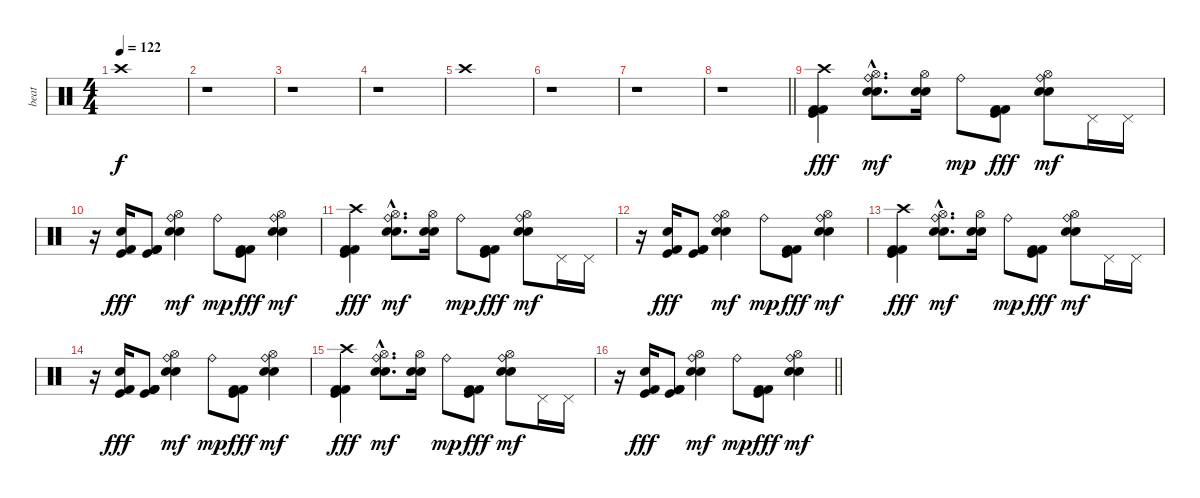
\track ("beat" "beat") {instrument percussion}
\staff {score}
\articulation defaults
\ts (4 4)
\tempo 122
\clef neutral
\ks c "Crash high (hit)".1{dy f}
|
r.1 |
r.1 |
r.1 |
"Crash high (hit)".1 |
r.1 |
r.1 |
\barLineRight lightlight
r.1 |
("Kick (hit)" "Kick (hit) 2" "Kick (hit) 2" "Crash high (hit)").4{dy fff} ("Ride (bell)"{hac} "Snare (hit) 2"{hac} "Electric Snare (hit)"{hac} "Hi-Hat (open)"{hac}).8{d dy mf} ("Snare (hit) 2" "Electric Snare (hit)" "Hi-Hat (open)").16 "Ride (bell)".8{dy mp} ("Kick (hit)" "Kick (hit) 2" "Kick (hit) 2").8{dy fff} ("Ride (bell)" "Snare (hit) 2" "Electric Snare (hit)" "Hi-Hat (open)").8{dy mf} "Pedal Hi-Hat (hit)".16 "Pedal Hi-Hat (hit)".16 |
r.16 ("Kick (hit)" "Kick (hit) 2" "Snare (hit) 2").16{dy fff} ("Kick (hit)" "Kick (hit) 2" "Kick (hit) 2").8 ("Ride (bell)" "Snare (hit) 2" "Electric Snare (hit)" "Hi-Hat (open)").4{dy mf} "Ride (bell)".8{dy mp} ("Kick (hit)" "Kick (hit) 2" "Kick (hit) 2").8{dy fff} ("Ride (bell)" "Snare (hit) 2" "Electric Snare (hit)" "Hi-Hat (open)").4{dy mf} |
("Kick (hit)" "Kick (hit) 2" "Kick (hit) 2" "Crash high (hit)").4{dy fff} ("Ride (bell)"{hac} "Snare (hit) 2"{hac} "Electric Snare (hit)"{hac} "Hi-Hat (open)"{hac}).8{d dy mf} ("Snare (hit) 2" "Electric Snare (hit)" "Hi-Hat (open)").16 "Ride (bell)".8{dy mp} ("Kick (hit)" "Kick (hit) 2" "Kick (hit) 2").8{dy fff} ("Ride (bell)" "Snare (hit) 2" "Electric Snare (hit)" "Hi-Hat (open)").8{dy mf} "Pedal Hi-Hat (hit)".16 "Pedal Hi-Hat (hit)".16 |
r.16 ("Kick (hit)" "Kick (hit) 2" "Snare (hit) 2").16{dy fff} ("Kick (hit)" "Kick (hit) 2" "Kick (hit) 2").8 ("Ride (bell)" "Snare (hit) 2" "Electric Snare (hit)" "Hi-Hat (open)").4{dy mf} "Ride (bell)".8{dy mp} ("Kick (hit)" "Kick (hit) 2" "Kick (hit) 2").8{dy fff} ("Ride (bell)" "Snare (hit) 2" "Electric Snare (hit)" "Hi-Hat (open)").4{dy mf} |
("Kick (hit)" "Kick (hit) 2" "Kick (hit) 2" "Crash high (hit)").4{dy fff} ("Ride (bell)"{hac} "Snare (hit) 2"{hac} "Electric Snare (hit)"{hac} "Hi-Hat (open)"{hac}).8{d dy mf} ("Snare (hit) 2" "Electric Snare (hit)" "Hi-Hat (open)").16 "Ride (bell)".8{dy mp} ("Kick (hit)" "Kick (hit) 2" "Kick (hit) 2").8{dy fff} ("Ride (bell)" "Snare (hit) 2" "Electric Snare (hit)" "Hi-Hat (open)").8{dy mf} "Pedal Hi-Hat (hit)".16 "Pedal Hi-Hat (hit)".16 |
r.16 ("Kick (hit)" "Kick (hit) 2" "Snare (hit) 2").16{dy fff} ("Kick (hit)" "Kick (hit) 2" "Kick (hit) 2").8 ("Ride (bell)" "Snare (hit) 2" "Electric Snare (hit)" "Hi-Hat (open)").4{dy mf} "Ride (bell)".8{dy mp} ("Kick (hit)" "Kick (hit) 2" "Kick (hit) 2").8{dy fff} ("Ride (bell)" "Snare (hit) 2" "Electric Snare (hit)" "Hi-Hat (open)").4{dy mf} |
("Kick (hit)" "Kick (hit) 2" "Kick (hit) 2" "Crash high (hit)").4{dy fff} ("Ride (bell)"{hac} "Snare (hit) 2"{hac} "Electric Snare (hit)"{hac} "Hi-Hat (open)"{hac}).8{d dy mf} ("Snare (hit) 2" "Electric Snare (hit)" "Hi-Hat (open)").16 "Ride (bell)".8{dy mp} ("Kick (hit)" "Kick (hit) 2" "Kick (hit) 2").8{dy fff} ("Ride (bell)" "Snare (hit) 2" "Electric Snare (hit)" "Hi-Hat (open)").8{dy mf} "Pedal Hi-Hat (hit)".16 "Pedal Hi-Hat (hit)".16 |
\barLineRight lightlight
r.16 ("Kick (hit)" "Kick (hit) 2" "Snare (hit) 2").16{dy fff} ("Kick (hit)" "Kick (hit) 2" "Kick (hit) 2").8 ("Ride (bell)" "Snare (hit) 2" "Electric Snare (hit)" "Hi-Hat (open)").4{dy mf} "Ride (bell)".8{dy mp} ("Kick (hit)" "Kick (hit) 2" "Kick (hit) 2").8{dy fff} ("Ride (bell)" "Snare (hit) 2" "Electric Snare (hit)" "Hi-Hat (open)").4{dy mf}
